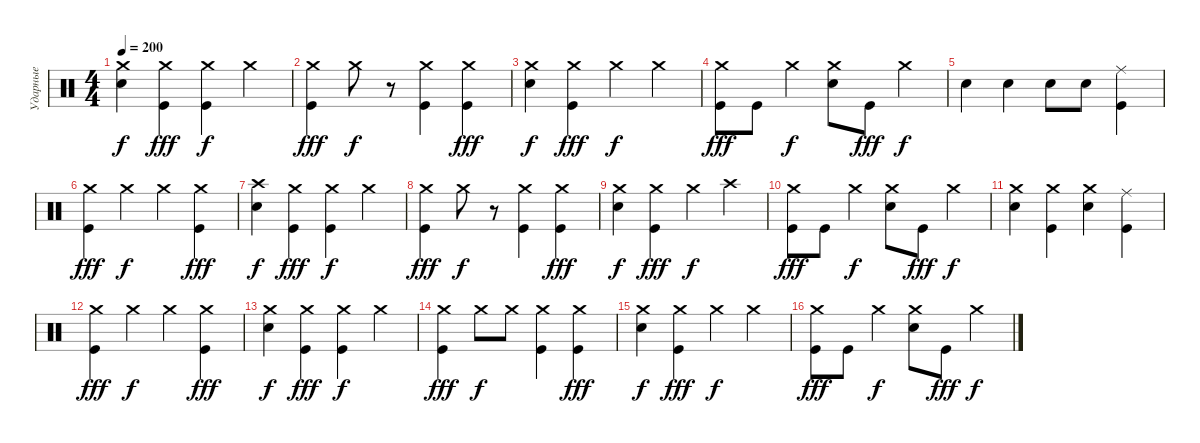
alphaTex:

\track ("Ударные" "Ударные") {instrument percussion}
\staff {score}
\articulation defaults
\ts (4 4)
\tempo 200
\clef neutral
\ks c
("Crash medium (hit)" "Electric Snare (hit)").4{dy f} ("Crash medium (hit)" "Kick (hit)").4{dy fff} ("Crash medium (hit)" "Kick (hit)").4{dy f} "Crash medium (hit)".4 |
("Crash medium (hit)" "Kick (hit)").4{dy fff} "Crash medium (hit)".8{dy f} r.8 ("Crash medium (hit)" "Kick (hit)").4 ("Crash medium (hit)" "Kick (hit)").4{dy fff} |
("Crash medium (hit)" "Electric Snare (hit)").4{dy f} ("Crash medium (hit)" "Kick (hit)").4{dy fff} "Crash medium (hit)".4{dy f} "Crash medium (hit)".4 |
("Crash medium (hit)" "Kick (hit)").8{dy fff} "Kick (hit)".8 "Crash medium (hit)".4{dy f} ("Crash medium (hit)" "Electric Snare (hit)").8 "Kick (hit)".8{dy fff} "Crash medium (hit)".4{dy f} |
"Electric Snare (hit)".4 "Electric Snare (hit)".4 "Electric Snare (hit)".8 "Electric Snare (hit)".8 ("Ride (middle)" "Kick (hit)").4 |
("Crash medium (hit)" "Kick (hit)").4{dy fff volume 13} "Crash medium (hit)".4{dy f} "Crash medium (hit)".4 ("Crash medium (hit)" "Kick (hit)").4{dy fff} |
("Crash high (hit)" "Electric Snare (hit)").4{dy f} ("Crash medium (hit)" "Kick (hit)").4{dy fff} ("Crash medium (hit)" "Kick (hit)").4{dy f} "Crash medium (hit)".4 |
("Crash medium (hit)" "Kick (hit)").4{dy fff} "Crash medium (hit)".8{dy f} r.8 ("Crash medium (hit)" "Kick (hit)").4 ("Crash medium (hit)" "Kick (hit)").4{dy fff} |
("Crash medium (hit)" "Electric Snare (hit)").4{dy f} ("Crash medium (hit)" "Kick (hit)").4{dy fff} "Crash medium (hit)".4{dy f} "Crash high (hit)".4 |
("Crash medium (hit)" "Kick (hit)").8{dy fff} "Kick (hit)".8 "Crash medium (hit)".4{dy f} ("Crash medium (hit)" "Electric Snare (hit)").8 "Kick (hit)".8{dy fff} "Crash medium (hit)".4{dy f} |
("Crash medium (hit)" "Electric Snare (hit)").4 ("Crash medium (hit)" "Kick (hit)").4 ("Crash medium (hit)" "Electric Snare (hit)").4 ("Ride (middle)" "Kick (hit)").4 |
("Crash medium (hit)" "Kick (hit)").4{dy fff volume 13} "Crash medium (hit)".4{dy f} "Crash medium (hit)".4 ("Crash medium (hit)" "Kick (hit)").4{dy fff} |
("Crash medium (hit)" "Electric Snare (hit)").4{dy f} ("Crash medium (hit)" "Kick (hit)").4{dy fff} ("Crash medium (hit)" "Kick (hit)").4{dy f} "Crash medium (hit)".4 |
("Crash medium (hit)" "Kick (hit)").4{dy fff} "Crash medium (hit)".8{dy f} "Crash medium (hit)".8 ("Crash medium (hit)" "Kick (hit)").4 ("Crash medium (hit)" "Kick (hit)").4{dy fff} |
("Crash medium (hit)" "Electric Snare (hit)").4{dy f} ("Crash medium (hit)" "Kick (hit)").4{dy fff} "Crash medium (hit)".4{dy f} "Crash medium (hit)".4 |
("Crash medium (hit)" "Kick (hit)").8{dy fff} "Kick (hit)".8 "Crash medium (hit)".4{dy f} ("Crash medium (hit)" "Electric Snare (hit)").8 "Kick (hit)".8{dy fff} "Crash medium (hit)".4{dy f}
